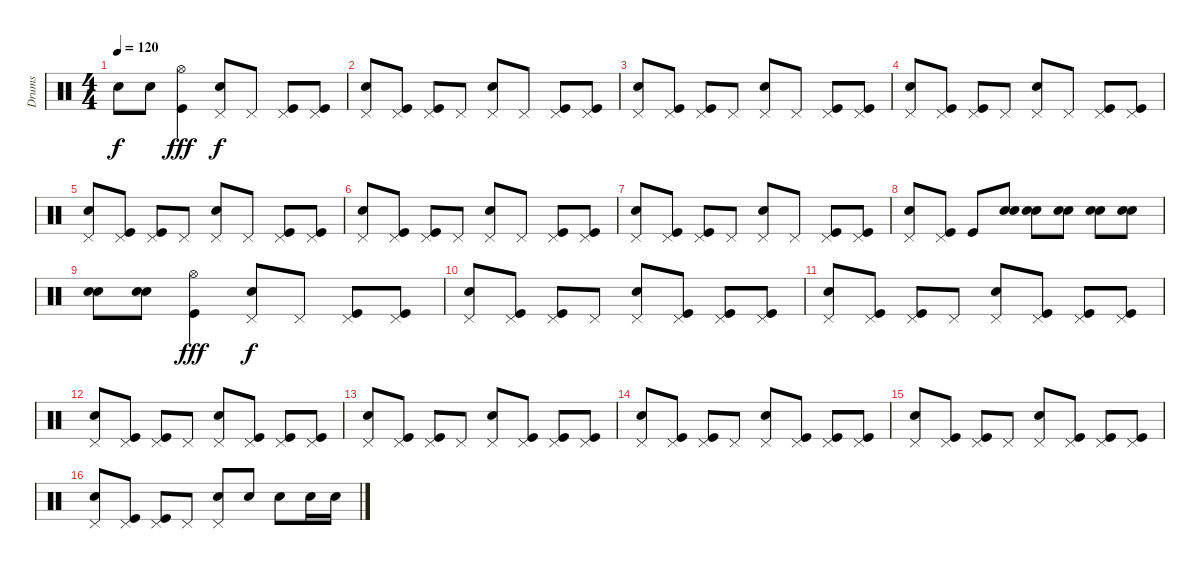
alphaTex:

\track ("Drums" "Drums") {instrument percussion}
\staff {score}
\articulation defaults
\ts (4 4)
\tempo 120
\clef neutral
\ks c "Snare (hit) 2".8{dy f} "Snare (hit) 2".8
("Kick (hit)" "Hi-Hat (open)").4{dy fff} ("Snare (hit) 2" "Pedal Hi-Hat (hit)").8{dy f} "Pedal Hi-Hat (hit)".8 ("Kick (hit)" "Pedal Hi-Hat (hit)").8 ("Kick (hit)" "Pedal Hi-Hat (hit)").8 |
("Snare (hit) 2" "Pedal Hi-Hat (hit)").8 ("Kick (hit)" "Pedal Hi-Hat (hit)").8 ("Kick (hit)" "Pedal Hi-Hat (hit)").8 "Pedal Hi-Hat (hit)".8 ("Snare (hit) 2" "Pedal Hi-Hat (hit)").8 "Pedal Hi-Hat (hit)".8 ("Kick (hit)" "Pedal Hi-Hat (hit)").8 ("Kick (hit)" "Pedal Hi-Hat (hit)").8 |
("Snare (hit) 2" "Pedal Hi-Hat (hit)").8 ("Kick (hit)" "Pedal Hi-Hat (hit)").8 ("Kick (hit)" "Pedal Hi-Hat (hit)").8 "Pedal Hi-Hat (hit)".8 ("Snare (hit) 2" "Pedal Hi-Hat (hit)").8 "Pedal Hi-Hat (hit)".8 ("Kick (hit)" "Pedal Hi-Hat (hit)").8 ("Kick (hit)" "Pedal Hi-Hat (hit)").8 |
("Snare (hit) 2" "Pedal Hi-Hat (hit)").8 ("Kick (hit)" "Pedal Hi-Hat (hit)").8 ("Kick (hit)" "Pedal Hi-Hat (hit)").8 "Pedal Hi-Hat (hit)".8 ("Snare (hit) 2" "Pedal Hi-Hat (hit)").8 "Pedal Hi-Hat (hit)".8 ("Kick (hit)" "Pedal Hi-Hat (hit)").8 ("Kick (hit)" "Pedal Hi-Hat (hit)").8 |
("Snare (hit) 2" "Pedal Hi-Hat (hit)").8 ("Kick (hit)" "Pedal Hi-Hat (hit)").8 ("Kick (hit)" "Pedal Hi-Hat (hit)").8 "Pedal Hi-Hat (hit)".8 ("Snare (hit) 2" "Pedal Hi-Hat (hit)").8 "Pedal Hi-Hat (hit)".8 ("Kick (hit)" "Pedal Hi-Hat (hit)").8 ("Kick (hit)" "Pedal Hi-Hat (hit)").8 |
("Snare (hit) 2" "Pedal Hi-Hat (hit)").8 ("Kick (hit)" "Pedal Hi-Hat (hit)").8 ("Kick (hit)" "Pedal Hi-Hat (hit)").8 "Pedal Hi-Hat (hit)".8 ("Snare (hit) 2" "Pedal Hi-Hat (hit)").8 "Pedal Hi-Hat (hit)".8 ("Kick (hit)" "Pedal Hi-Hat (hit)").8 ("Kick (hit)" "Pedal Hi-Hat (hit)").8 |
("Snare (hit) 2" "Pedal Hi-Hat (hit)").8 ("Kick (hit)" "Pedal Hi-Hat (hit)").8 ("Kick (hit)" "Pedal Hi-Hat (hit)").8 "Pedal Hi-Hat (hit)".8 ("Snare (hit) 2" "Pedal Hi-Hat (hit)").8 "Pedal Hi-Hat (hit)".8 ("Kick (hit)" "Pedal Hi-Hat (hit)").8 ("Kick (hit)" "Pedal Hi-Hat (hit)").8 |
("Snare (hit) 2" "Pedal Hi-Hat (hit)").8 ("Kick (hit)" "Pedal Hi-Hat (hit)").8 "Kick (hit)".8 ("Snare (hit) 2" "Electric Snare (hit)").8 ("Snare (hit) 2" "Electric Snare (hit)").8 ("Snare (hit) 2" "Electric Snare (hit)").8 ("Snare (hit) 2" "Electric Snare (hit)").8 ("Snare (hit) 2" "Electric Snare (hit)").8 |
("Snare (hit) 2" "Electric Snare (hit)").8 ("Snare (hit) 2" "Electric Snare (hit)").8 ("Kick (hit)" "Hi-Hat (open)").4{dy fff} ("Snare (hit) 2" "Pedal Hi-Hat (hit)").8{dy f} "Pedal Hi-Hat (hit)".8 ("Kick (hit)" "Pedal Hi-Hat (hit)").8 ("Kick (hit)" "Pedal Hi-Hat (hit)").8 |
("Snare (hit) 2" "Pedal Hi-Hat (hit)").8 ("Kick (hit)" "Pedal Hi-Hat (hit)").8 ("Kick (hit)" "Pedal Hi-Hat (hit)").8 "Pedal Hi-Hat (hit)".8 ("Snare (hit) 2" "Pedal Hi-Hat (hit)").8 ("Kick (hit)" "Pedal Hi-Hat (hit)").8 ("Kick (hit)" "Pedal Hi-Hat (hit)").8 ("Kick (hit)" "Pedal Hi-Hat (hit)").8 |
("Snare (hit) 2" "Pedal Hi-Hat (hit)").8 ("Kick (hit)" "Pedal Hi-Hat (hit)").8 ("Kick (hit)" "Pedal Hi-Hat (hit)").8 "Pedal Hi-Hat (hit)".8 ("Snare (hit) 2" "Pedal Hi-Hat (hit)").8 ("Kick (hit)" "Pedal Hi-Hat (hit)").8 ("Kick (hit)" "Pedal Hi-Hat (hit)").8 ("Kick (hit)" "Pedal Hi-Hat (hit)").8 |
("Snare (hit) 2" "Pedal Hi-Hat (hit)").8 ("Kick (hit)" "Pedal Hi-Hat (hit)").8 ("Kick (hit)" "Pedal Hi-Hat (hit)").8 "Pedal Hi-Hat (hit)".8 ("Snare (hit) 2" "Pedal Hi-Hat (hit)").8 ("Kick (hit)" "Pedal Hi-Hat (hit)").8 ("Kick (hit)" "Pedal Hi-Hat (hit)").8 ("Kick (hit)" "Pedal Hi-Hat (hit)").8 |
("Snare (hit) 2" "Pedal Hi-Hat (hit)").8 ("Kick (hit)" "Pedal Hi-Hat (hit)").8 ("Kick (hit)" "Pedal Hi-Hat (hit)").8 "Pedal Hi-Hat (hit)".8 ("Snare (hit) 2" "Pedal Hi-Hat (hit)").8 ("Kick (hit)" "Pedal Hi-Hat (hit)").8 ("Kick (hit)" "Pedal Hi-Hat (hit)").8 ("Kick (hit)" "Pedal Hi-Hat (hit)").8 |
("Snare (hit) 2" "Pedal Hi-Hat (hit)").8 ("Kick (hit)" "Pedal Hi-Hat (hit)").8 ("Kick (hit)" "Pedal Hi-Hat (hit)").8 "Pedal Hi-Hat (hit)".8 ("Snare (hit) 2" "Pedal Hi-Hat (hit)").8 ("Kick (hit)" "Pedal Hi-Hat (hit)").8 ("Kick (hit)" "Pedal Hi-Hat (hit)").8 ("Kick (hit)" "Pedal Hi-Hat (hit)").8 |
("Snare (hit) 2" "Pedal Hi-Hat (hit)").8 ("Kick (hit)" "Pedal Hi-Hat (hit)").8 ("Kick (hit)" "Pedal Hi-Hat (hit)").8 "Pedal Hi-Hat (hit)".8 ("Snare (hit) 2" "Pedal Hi-Hat (hit)").8 ("Kick (hit)" "Pedal Hi-Hat (hit)").8 ("Kick (hit)" "Pedal Hi-Hat (hit)").8 ("Kick (hit)" "Pedal Hi-Hat (hit)").8 |
("Snare (hit) 2" "Pedal Hi-Hat (hit)").8 ("Kick (hit)" "Pedal Hi-Hat (hit)").8 ("Kick (hit)" "Pedal Hi-Hat (hit)").8 "Pedal Hi-Hat (hit)".8 ("Snare (hit) 2" "Pedal Hi-Hat (hit)").8 "Electric Snare (hit)".8 "Electric Snare (hit)".8 "Electric Snare (hit)".16 "Electric Snare (hit)".16
